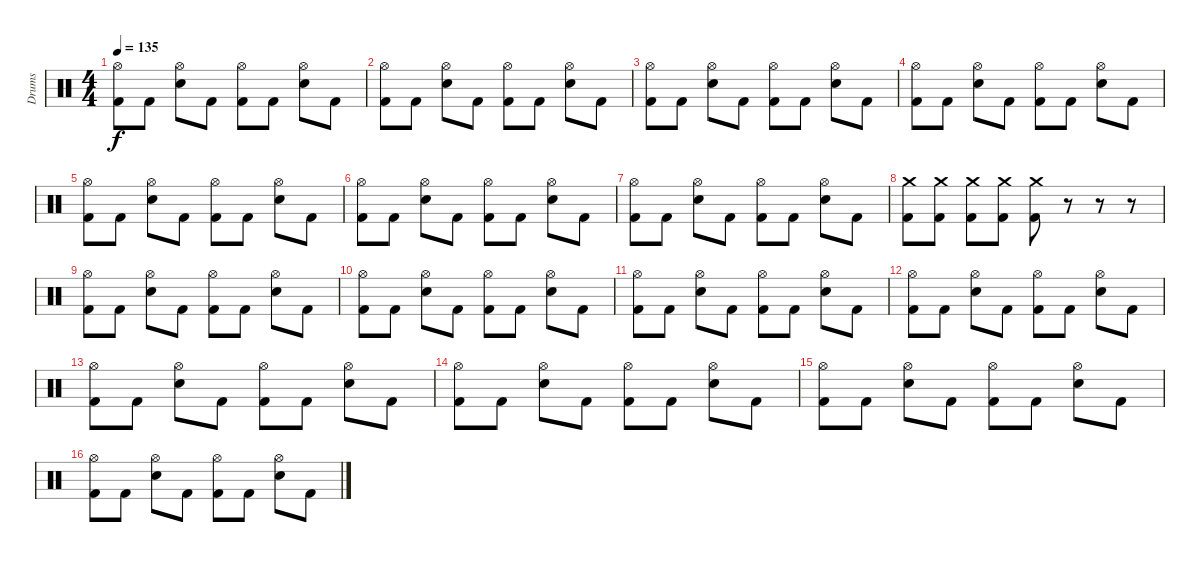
\track ("Drums" "Drums") {instrument percussion}
\staff {score}
\articulation defaults
\ts (4 4)
\tempo 135
\clef neutral
\ks c
("Hi-Hat (open)" "Kick (hit) 2").8{dy f} "Kick (hit) 2".8 ("Hi-Hat (open)" "Electric Snare (hit)").8 "Kick (hit) 2".8 ("Hi-Hat (open)" "Kick (hit) 2").8 "Kick (hit) 2".8 ("Hi-Hat (open)" "Electric Snare (hit)").8 "Kick (hit) 2".8 |
("Hi-Hat (open)" "Kick (hit) 2").8 "Kick (hit) 2".8 ("Hi-Hat (open)" "Electric Snare (hit)").8 "Kick (hit) 2".8 ("Hi-Hat (open)" "Kick (hit) 2").8 "Kick (hit) 2".8 ("Hi-Hat (open)" "Electric Snare (hit)").8 "Kick (hit) 2".8 |
("Hi-Hat (open)" "Kick (hit) 2").8 "Kick (hit) 2".8 ("Hi-Hat (open)" "Electric Snare (hit)").8 "Kick (hit) 2".8 ("Hi-Hat (open)" "Kick (hit) 2").8 "Kick (hit) 2".8 ("Hi-Hat (open)" "Electric Snare (hit)").8 "Kick (hit) 2".8 |
("Hi-Hat (open)" "Kick (hit) 2").8 "Kick (hit) 2".8 ("Hi-Hat (open)" "Electric Snare (hit)").8 "Kick (hit) 2".8 ("Hi-Hat (open)" "Kick (hit) 2").8 "Kick (hit) 2".8 ("Hi-Hat (open)" "Electric Snare (hit)").8 "Kick (hit) 2".8 |
("Hi-Hat (open)" "Kick (hit) 2").8 "Kick (hit) 2".8 ("Hi-Hat (open)" "Electric Snare (hit)").8 "Kick (hit) 2".8 ("Hi-Hat (open)" "Kick (hit) 2").8 "Kick (hit) 2".8 ("Hi-Hat (open)" "Electric Snare (hit)").8 "Kick (hit) 2".8 |
("Hi-Hat (open)" "Kick (hit) 2").8 "Kick (hit) 2".8 ("Hi-Hat (open)" "Electric Snare (hit)").8 "Kick (hit) 2".8 ("Hi-Hat (open)" "Kick (hit) 2").8 "Kick (hit) 2".8 ("Hi-Hat (open)" "Electric Snare (hit)").8 "Kick (hit) 2".8 |
("Hi-Hat (open)" "Kick (hit) 2").8 "Kick (hit) 2".8 ("Hi-Hat (open)" "Electric Snare (hit)").8 "Kick (hit) 2".8 ("Hi-Hat (open)" "Kick (hit) 2").8 "Kick (hit) 2".8 ("Hi-Hat (open)" "Electric Snare (hit)").8 "Kick (hit) 2".8 |
("Crash medium (hit)" "Kick (hit) 2").8 ("Crash medium (hit)" "Kick (hit) 2").8 ("Crash medium (hit)" "Kick (hit) 2").8 ("Crash medium (hit)" "Kick (hit) 2").8 ("Crash medium (hit)" "Kick (hit) 2").8 r.8 r.8 r.8 |
("Hi-Hat (open)" "Kick (hit) 2").8 "Kick (hit) 2".8 ("Hi-Hat (open)" "Electric Snare (hit)").8 "Kick (hit) 2".8 ("Hi-Hat (open)" "Kick (hit) 2").8 "Kick (hit) 2".8 ("Hi-Hat (open)" "Electric Snare (hit)").8 "Kick (hit) 2".8 |
("Hi-Hat (open)" "Kick (hit) 2").8 "Kick (hit) 2".8 ("Hi-Hat (open)" "Electric Snare (hit)").8 "Kick (hit) 2".8 ("Hi-Hat (open)" "Kick (hit) 2").8 "Kick (hit) 2".8 ("Hi-Hat (open)" "Electric Snare (hit)").8 "Kick (hit) 2".8 |
("Hi-Hat (open)" "Kick (hit) 2").8 "Kick (hit) 2".8 ("Hi-Hat (open)" "Electric Snare (hit)").8 "Kick (hit) 2".8 ("Hi-Hat (open)" "Kick (hit) 2").8 "Kick (hit) 2".8 ("Hi-Hat (open)" "Electric Snare (hit)").8 "Kick (hit) 2".8 |
("Hi-Hat (open)" "Kick (hit) 2").8 "Kick (hit) 2".8 ("Hi-Hat (open)" "Electric Snare (hit)").8 "Kick (hit) 2".8 ("Hi-Hat (open)" "Kick (hit) 2").8 "Kick (hit) 2".8 ("Hi-Hat (open)" "Electric Snare (hit)").8 "Kick (hit) 2".8 |
("Hi-Hat (open)" "Kick (hit) 2").8 "Kick (hit) 2".8 ("Hi-Hat (open)" "Electric Snare (hit)").8 "Kick (hit) 2".8 ("Hi-Hat (open)" "Kick (hit) 2").8 "Kick (hit) 2".8 ("Hi-Hat (open)" "Electric Snare (hit)").8 "Kick (hit) 2".8 |
("Hi-Hat (open)" "Kick (hit) 2").8 "Kick (hit) 2".8 ("Hi-Hat (open)" "Electric Snare (hit)").8 "Kick (hit) 2".8 ("Hi-Hat (open)" "Kick (hit) 2").8 "Kick (hit) 2".8 ("Hi-Hat (open)" "Electric Snare (hit)").8 "Kick (hit) 2".8 |
("Hi-Hat (open)" "Kick (hit) 2").8 "Kick (hit) 2".8 ("Hi-Hat (open)" "Electric Snare (hit)").8 "Kick (hit) 2".8 ("Hi-Hat (open)" "Kick (hit) 2").8 "Kick (hit) 2".8 ("Hi-Hat (open)" "Electric Snare (hit)").8 "Kick (hit) 2".8 |
("Hi-Hat (open)" "Kick (hit) 2").8 "Kick (hit) 2".8 ("Hi-Hat (open)" "Electric Snare (hit)").8 "Kick (hit) 2".8 ("Hi-Hat (open)" "Kick (hit) 2").8 "Kick (hit) 2".8 ("Hi-Hat (open)" "Electric Snare (hit)").8 "Kick (hit) 2".8
